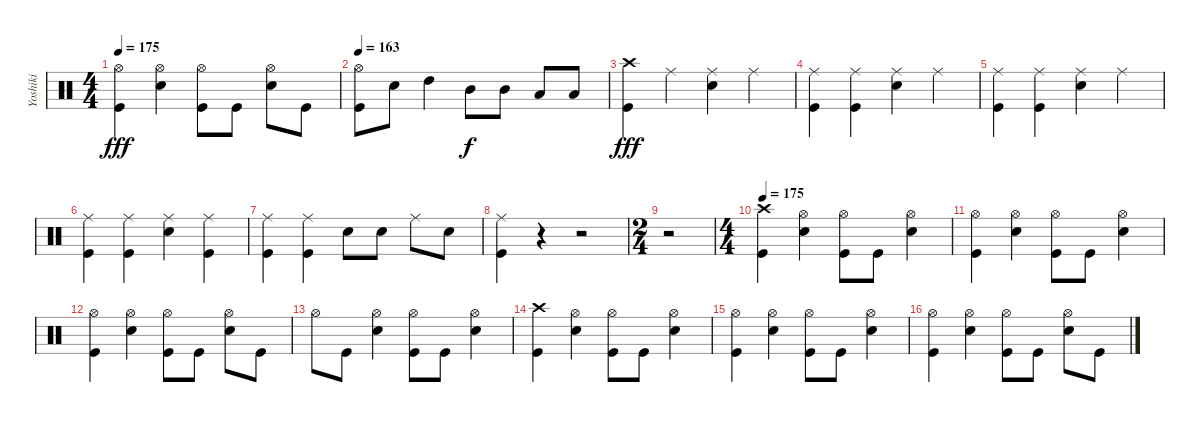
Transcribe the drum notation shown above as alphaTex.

\track ("Yoshiki" "Yoshiki") {instrument percussion}
\staff {score}
\articulation defaults
\ts (4 4)
\tempo 175
\clef neutral
\ks c
("Hi-Hat (open)" "Kick (hit)").4{dy fff} ("Hi-Hat (open)" "Snare (hit) 2").4 ("Hi-Hat (open)" "Kick (hit)").8 "Kick (hit)".8 ("Hi-Hat (open)" "Snare (hit) 2").8 "Kick (hit)".8 |
\tempo 163
("Hi-Hat (open)" "Kick (hit)").8 "Snare (hit) 2".8 "High Tom (hit)".4 "Mid Tom (hit)".8{dy f} "Mid Tom (hit)".8 "Low Tom (hit)".8 "Low Tom (hit)".8 |
("Crash high (hit)" "Kick (hit)").4{dy fff} "Ride (middle)".4 ("Ride (middle)" "Snare (hit) 2").4 "Ride (middle)".4 |
("Ride (middle)" "Kick (hit)").4 ("Ride (middle)" "Kick (hit)").4 ("Ride (middle)" "Snare (hit) 2").4 "Ride (middle)".4 |
("Ride (middle)" "Kick (hit)").4 ("Ride (middle)" "Kick (hit)").4 ("Ride (middle)" "Snare (hit) 2").4 "Ride (middle)".4 |
("Ride (middle)" "Kick (hit)").4 ("Ride (middle)" "Kick (hit)").4 ("Ride (middle)" "Snare (hit) 2").4 ("Ride (middle)" "Kick (hit)").4 |
("Ride (middle)" "Kick (hit)").4 ("Ride (middle)" "Kick (hit)").4 "Snare (hit) 2".8 "Snare (hit) 2".8 "Ride (middle)".8 "Snare (hit) 2".8 |
("Ride (middle)" "Kick (hit)").4 r.4 r.2 |
\ts (2 4)
r.2 |
\ts (4 4)
\tempo 175
("Crash high (hit)" "Kick (hit)").4 ("Hi-Hat (open)" "Snare (hit) 2").4 ("Hi-Hat (open)" "Kick (hit)").8 "Kick (hit)".8 ("Hi-Hat (open)" "Snare (hit) 2").4 |
("Hi-Hat (open)" "Kick (hit)").4 ("Hi-Hat (open)" "Snare (hit) 2").4 ("Hi-Hat (open)" "Kick (hit)").8 "Kick (hit)".8 ("Hi-Hat (open)" "Snare (hit) 2").4 |
("Hi-Hat (open)" "Kick (hit)").4 ("Hi-Hat (open)" "Snare (hit) 2").4 ("Hi-Hat (open)" "Kick (hit)").8 "Kick (hit)".8 ("Hi-Hat (open)" "Snare (hit) 2").8 "Kick (hit)".8 |
"Hi-Hat (open)".8 "Kick (hit)".8 ("Hi-Hat (open)" "Snare (hit) 2").4 ("Hi-Hat (open)" "Kick (hit)").8 "Kick (hit)".8 ("Hi-Hat (open)" "Snare (hit) 2").4 |
("Crash high (hit)" "Kick (hit)").4 ("Hi-Hat (open)" "Snare (hit) 2").4 ("Hi-Hat (open)" "Kick (hit)").8 "Kick (hit)".8 ("Hi-Hat (open)" "Snare (hit) 2").4 |
("Hi-Hat (open)" "Kick (hit)").4 ("Hi-Hat (open)" "Snare (hit) 2").4 ("Hi-Hat (open)" "Kick (hit)").8 "Kick (hit)".8 ("Hi-Hat (open)" "Snare (hit) 2").4 |
("Hi-Hat (open)" "Kick (hit)").4 ("Hi-Hat (open)" "Snare (hit) 2").4 ("Hi-Hat (open)" "Kick (hit)").8 "Kick (hit)".8 ("Hi-Hat (open)" "Snare (hit) 2").8 "Kick (hit)".8
